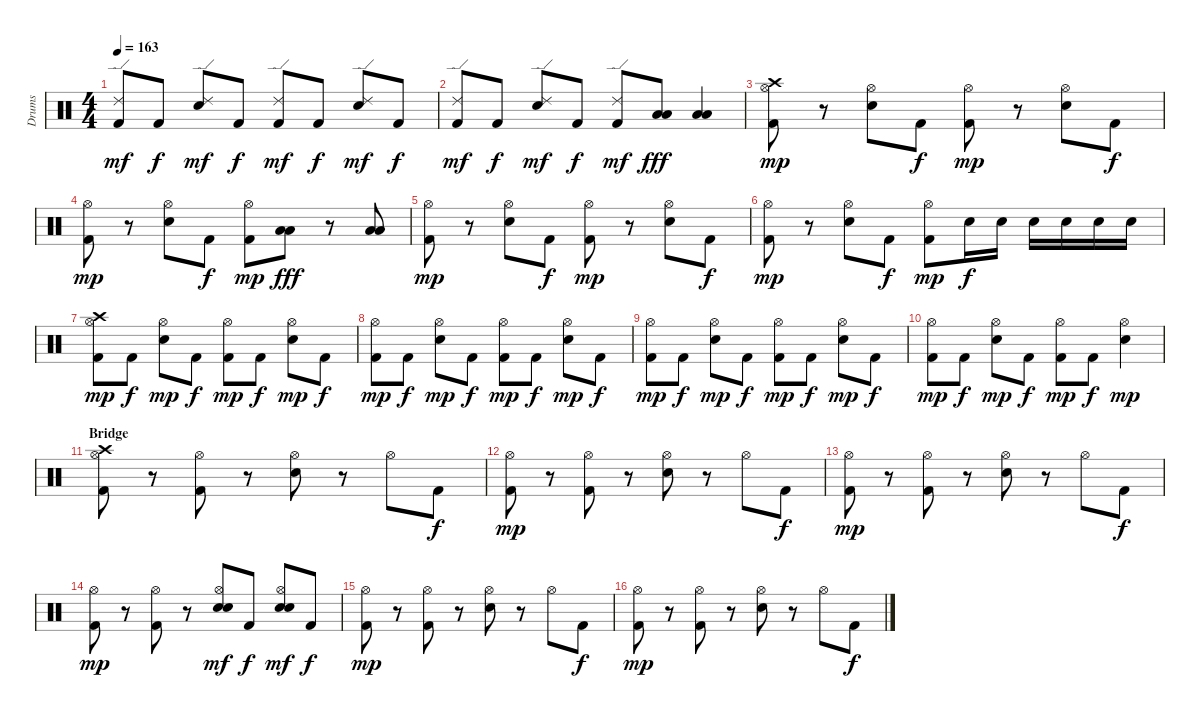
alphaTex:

\track ("Drums" "Drums") {instrument percussion}
\staff {score}
\articulation defaults
\ts (4 4)
\tempo 163
\clef neutral
\ks c
("Ride (edge) 2" "Kick (hit) 2").8{dy mf} "Kick (hit) 2".8{dy f} ("Ride (edge) 2" "Electric Snare (hit)").8{dy mf} "Kick (hit) 2".8{dy f} ("Ride (edge) 2" "Kick (hit) 2").8{dy mf} "Kick (hit) 2".8{dy f} ("Ride (edge) 2" "Electric Snare (hit)").8{dy mf} "Kick (hit) 2".8{dy f} |
("Ride (edge) 2" "Kick (hit) 2").8{dy mf} "Kick (hit) 2".8{dy f} ("Ride (edge) 2" "Electric Snare (hit)").8{dy mf} "Kick (hit) 2".8{dy f} ("Ride (edge) 2" "Kick (hit) 2").8{dy mf} ("Low Floor Tom (hit)" "Low Floor Tom (hit)").8{dy fff} ("Low Floor Tom (hit)" "Low Floor Tom (hit)").4 |
("Crash high (hit)" "Hi-Hat (open)" "Kick (hit) 2").8{dy mp} r.8 ("Hi-Hat (open)" "Electric Snare (hit)").8 "Kick (hit) 2".8{dy f} ("Hi-Hat (open)" "Kick (hit) 2").8{dy mp} r.8 ("Hi-Hat (open)" "Electric Snare (hit)").8 "Kick (hit) 2".8{dy f} |
("Hi-Hat (open)" "Kick (hit) 2").8{dy mp} r.8 ("Hi-Hat (open)" "Electric Snare (hit)").8 "Kick (hit) 2".8{dy f} ("Hi-Hat (open)" "Kick (hit) 2").8{dy mp} ("Low Floor Tom (hit)" "Low Floor Tom (hit)").8{dy fff} r.8 ("Low Floor Tom (hit)" "Low Floor Tom (hit)").8 |
("Hi-Hat (open)" "Kick (hit) 2").8{dy mp} r.8 ("Hi-Hat (open)" "Electric Snare (hit)").8 "Kick (hit) 2".8{dy f} ("Hi-Hat (open)" "Kick (hit) 2").8{dy mp} r.8 ("Hi-Hat (open)" "Electric Snare (hit)").8 "Kick (hit) 2".8{dy f} |
("Hi-Hat (open)" "Kick (hit) 2").8{dy mp} r.8 ("Hi-Hat (open)" "Electric Snare (hit)").8 "Kick (hit) 2".8{dy f} ("Hi-Hat (open)" "Kick (hit) 2").8{dy mp} "Electric Snare (hit)".16{dy f} "Electric Snare (hit)".16 "Electric Snare (hit)".16 "Electric Snare (hit)".16 "Electric Snare (hit)".16 "Electric Snare (hit)".16 |
("Crash high (hit)" "Hi-Hat (open)" "Kick (hit) 2").8{dy mp} "Kick (hit) 2".8{dy f} ("Hi-Hat (open)" "Electric Snare (hit)").8{dy mp} "Kick (hit) 2".8{dy f} ("Hi-Hat (open)" "Kick (hit) 2").8{dy mp} "Kick (hit) 2".8{dy f} ("Hi-Hat (open)" "Electric Snare (hit)").8{dy mp} "Kick (hit) 2".8{dy f} |
("Hi-Hat (open)" "Kick (hit) 2").8{dy mp} "Kick (hit) 2".8{dy f} ("Hi-Hat (open)" "Electric Snare (hit)").8{dy mp} "Kick (hit) 2".8{dy f} ("Hi-Hat (open)" "Kick (hit) 2").8{dy mp} "Kick (hit) 2".8{dy f} ("Hi-Hat (open)" "Electric Snare (hit)").8{dy mp} "Kick (hit) 2".8{dy f} |
("Hi-Hat (open)" "Kick (hit) 2").8{dy mp} "Kick (hit) 2".8{dy f} ("Hi-Hat (open)" "Electric Snare (hit)").8{dy mp} "Kick (hit) 2".8{dy f} ("Hi-Hat (open)" "Kick (hit) 2").8{dy mp} "Kick (hit) 2".8{dy f} ("Hi-Hat (open)" "Electric Snare (hit)").8{dy mp} "Kick (hit) 2".8{dy f} |
("Hi-Hat (open)" "Kick (hit) 2").8{dy mp} "Kick (hit) 2".8{dy f} ("Hi-Hat (open)" "Electric Snare (hit)").8{dy mp} "Kick (hit) 2".8{dy f} ("Hi-Hat (open)" "Kick (hit) 2").8{dy mp} "Kick (hit) 2".8{dy f} ("Hi-Hat (open)" "Electric Snare (hit)").4{dy mp} |
\section ("" "Bridge")
("Crash high (hit)" "Hi-Hat (open)" "Kick (hit) 2").8 r.8 ("Hi-Hat (open)" "Kick (hit) 2").8 r.8 ("Hi-Hat (open)" "Electric Snare (hit)").8 r.8 "Hi-Hat (open)".8 "Kick (hit) 2".8{dy f} |
("Hi-Hat (open)" "Kick (hit) 2").8{dy mp} r.8 ("Hi-Hat (open)" "Kick (hit) 2").8 r.8 ("Hi-Hat (open)" "Electric Snare (hit)").8 r.8 "Hi-Hat (open)".8 "Kick (hit) 2".8{dy f} |
("Hi-Hat (open)" "Kick (hit) 2").8{dy mp} r.8 ("Hi-Hat (open)" "Kick (hit) 2").8 r.8 ("Hi-Hat (open)" "Electric Snare (hit)").8 r.8 "Hi-Hat (open)".8 "Kick (hit) 2".8{dy f} |
("Hi-Hat (open)" "Kick (hit) 2").8{dy mp} r.8 ("Hi-Hat (open)" "Kick (hit) 2").8 r.8 ("Hi-Hat (open)" "Snare (hit) 2" "Electric Snare (hit)").8{dy mf} "Kick (hit) 2".8{dy f} ("Hi-Hat (open)" "Snare (hit) 2" "Electric Snare (hit)").8{dy mf} "Kick (hit) 2".8{dy f} |
("Hi-Hat (open)" "Kick (hit) 2").8{dy mp} r.8 ("Hi-Hat (open)" "Kick (hit) 2").8 r.8 ("Hi-Hat (open)" "Electric Snare (hit)").8 r.8 "Hi-Hat (open)".8 "Kick (hit) 2".8{dy f} |
("Hi-Hat (open)" "Kick (hit) 2").8{dy mp} r.8 ("Hi-Hat (open)" "Kick (hit) 2").8 r.8 ("Hi-Hat (open)" "Electric Snare (hit)").8 r.8 "Hi-Hat (open)".8 "Kick (hit) 2".8{dy f}
